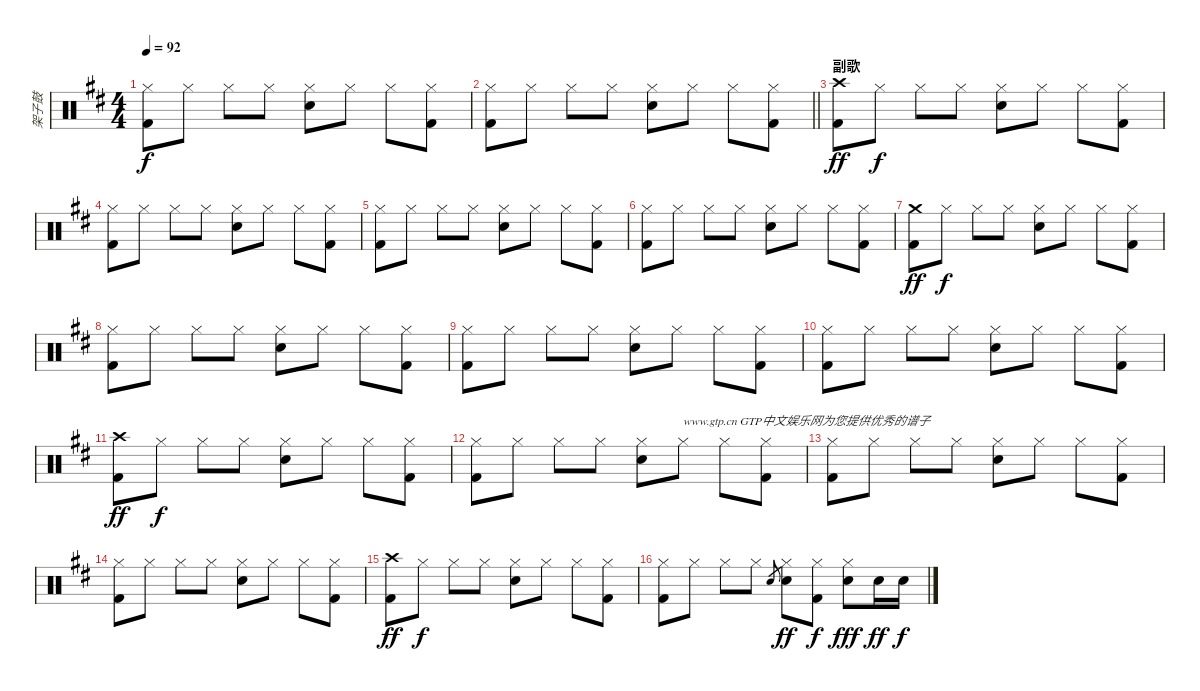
\track ("架子鼓" "架子鼓") {instrument percussion}
\staff {score}
\articulation defaults
\ts (4 4)
\tempo 92
\clef neutral
\ks d
("Hi-Hat (closed)" "Kick (hit) 2").8{dy f} "Hi-Hat (closed)".8 "Hi-Hat (closed)".8 "Hi-Hat (closed)".8 ("Hi-Hat (closed)" "Electric Snare (hit)").8 "Hi-Hat (closed)".8 "Hi-Hat (closed)".8 ("Hi-Hat (closed)" "Kick (hit) 2").8 |
\barLineRight lightlight
("Hi-Hat (closed)" "Kick (hit) 2").8 "Hi-Hat (closed)".8 "Hi-Hat (closed)".8 "Hi-Hat (closed)".8 ("Hi-Hat (closed)" "Electric Snare (hit)").8 "Hi-Hat (closed)".8 "Hi-Hat (closed)".8 ("Hi-Hat (closed)" "Kick (hit) 2").8 |
\section ("" "副歌")
("Crash high (hit)" "Kick (hit) 2").8{dy ff} "Hi-Hat (closed)".8{dy f} "Hi-Hat (closed)".8 "Hi-Hat (closed)".8 ("Hi-Hat (closed)" "Electric Snare (hit)").8 "Hi-Hat (closed)".8 "Hi-Hat (closed)".8 ("Hi-Hat (closed)" "Kick (hit) 2").8 |
("Hi-Hat (closed)" "Kick (hit) 2").8 "Hi-Hat (closed)".8 "Hi-Hat (closed)".8 "Hi-Hat (closed)".8 ("Hi-Hat (closed)" "Electric Snare (hit)").8 "Hi-Hat (closed)".8 "Hi-Hat (closed)".8 ("Hi-Hat (closed)" "Kick (hit) 2").8 |
("Hi-Hat (closed)" "Kick (hit) 2").8 "Hi-Hat (closed)".8 "Hi-Hat (closed)".8 "Hi-Hat (closed)".8 ("Hi-Hat (closed)" "Electric Snare (hit)").8 "Hi-Hat (closed)".8 "Hi-Hat (closed)".8 ("Hi-Hat (closed)" "Kick (hit) 2").8 |
("Hi-Hat (closed)" "Kick (hit) 2").8 "Hi-Hat (closed)".8 "Hi-Hat (closed)".8 "Hi-Hat (closed)".8 ("Hi-Hat (closed)" "Electric Snare (hit)").8 "Hi-Hat (closed)".8 "Hi-Hat (closed)".8 ("Hi-Hat (closed)" "Kick (hit) 2").8 |
("Crash medium (hit)" "Kick (hit) 2").8{dy ff} "Hi-Hat (closed)".8{dy f} "Hi-Hat (closed)".8 "Hi-Hat (closed)".8 ("Hi-Hat (closed)" "Electric Snare (hit)").8 "Hi-Hat (closed)".8 "Hi-Hat (closed)".8 ("Hi-Hat (closed)" "Kick (hit) 2").8 |
("Hi-Hat (closed)" "Kick (hit) 2").8 "Hi-Hat (closed)".8 "Hi-Hat (closed)".8 "Hi-Hat (closed)".8 ("Hi-Hat (closed)" "Electric Snare (hit)").8 "Hi-Hat (closed)".8 "Hi-Hat (closed)".8 ("Hi-Hat (closed)" "Kick (hit) 2").8 |
("Hi-Hat (closed)" "Kick (hit) 2").8 "Hi-Hat (closed)".8 "Hi-Hat (closed)".8 "Hi-Hat (closed)".8 ("Hi-Hat (closed)" "Electric Snare (hit)").8 "Hi-Hat (closed)".8 "Hi-Hat (closed)".8 ("Hi-Hat (closed)" "Kick (hit) 2").8 |
("Hi-Hat (closed)" "Kick (hit) 2").8 "Hi-Hat (closed)".8 "Hi-Hat (closed)".8 "Hi-Hat (closed)".8 ("Hi-Hat (closed)" "Electric Snare (hit)").8 "Hi-Hat (closed)".8 "Hi-Hat (closed)".8 ("Hi-Hat (closed)" "Kick (hit) 2").8 |
("Crash high (hit)" "Kick (hit) 2").8{dy ff} "Hi-Hat (closed)".8{dy f} "Hi-Hat (closed)".8 "Hi-Hat (closed)".8 ("Hi-Hat (closed)" "Electric Snare (hit)").8 "Hi-Hat (closed)".8 "Hi-Hat (closed)".8 ("Hi-Hat (closed)" "Kick (hit) 2").8 |
("Hi-Hat (closed)" "Kick (hit) 2").8 "Hi-Hat (closed)".8 "Hi-Hat (closed)".8 "Hi-Hat (closed)".8 ("Hi-Hat (closed)" "Electric Snare (hit)").8 "Hi-Hat (closed)".8{txt "www.gtp.cn GTP中文娱乐网为您提供优秀的谱子"} "Hi-Hat (closed)".8 ("Hi-Hat (closed)" "Kick (hit) 2").8 |
("Hi-Hat (closed)" "Kick (hit) 2").8 "Hi-Hat (closed)".8 "Hi-Hat (closed)".8 "Hi-Hat (closed)".8 ("Hi-Hat (closed)" "Electric Snare (hit)").8 "Hi-Hat (closed)".8 "Hi-Hat (closed)".8 ("Hi-Hat (closed)" "Kick (hit) 2").8 |
("Hi-Hat (closed)" "Kick (hit) 2").8 "Hi-Hat (closed)".8 "Hi-Hat (closed)".8 "Hi-Hat (closed)".8 ("Hi-Hat (closed)" "Electric Snare (hit)").8 "Hi-Hat (closed)".8 "Hi-Hat (closed)".8 ("Hi-Hat (closed)" "Kick (hit) 2").8 |
("Crash high (hit)" "Kick (hit) 2").8{dy ff} "Hi-Hat (closed)".8{dy f} "Hi-Hat (closed)".8 "Hi-Hat (closed)".8 ("Hi-Hat (closed)" "Electric Snare (hit)").8 "Hi-Hat (closed)".8 "Hi-Hat (closed)".8 ("Hi-Hat (closed)" "Kick (hit) 2").8 |
("Hi-Hat (closed)" "Kick (hit) 2").8 "Hi-Hat (closed)".8 "Hi-Hat (closed)".8 "Hi-Hat (closed)".8 "Electric Snare (hit)".8{gr} ("Hi-Hat (closed)" "Electric Snare (hit)").8{dy ff} ("Hi-Hat (closed)" "Kick (hit) 2").8{dy f} ("Hi-Hat (closed)" "Electric Snare (hit)").8{dy fff} "Electric Snare (hit)".16{dy ff} "Electric Snare (hit)".16{dy f}
